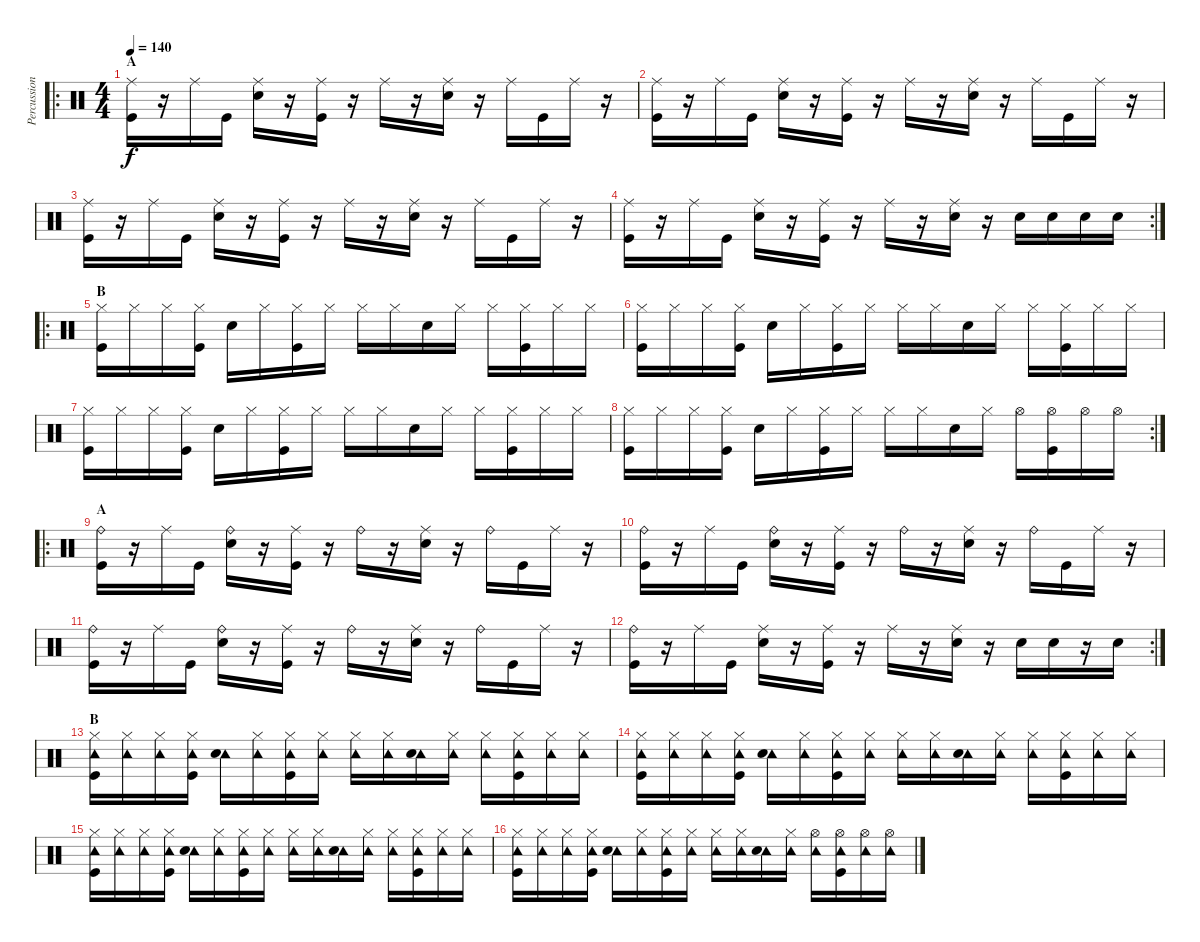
\track ("Percussion" "Percussion") {instrument percussion}
\staff {score}
\articulation defaults
\ro
\ts (4 4)
\section ("" "A")
\tempo 140
\clef neutral
\ks c
("Ride (middle)" "Kick (hit)").16{dy f} r.16 "Ride (middle)".16 "Kick (hit)".16 ("Ride (middle)" "Electric Snare (hit)").16 r.16 ("Ride (middle)" "Kick (hit)").16 r.16 "Ride (middle)".16 r.16 ("Ride (middle)" "Electric Snare (hit)").16 r.16 "Ride (middle)".16 "Kick (hit)".16 "Ride (middle)".16 r.16 |
("Ride (middle)" "Kick (hit)").16 r.16 "Ride (middle)".16 "Kick (hit)".16 ("Ride (middle)" "Electric Snare (hit)").16 r.16 ("Ride (middle)" "Kick (hit)").16 r.16 "Ride (middle)".16 r.16 ("Ride (middle)" "Electric Snare (hit)").16 r.16 "Ride (middle)".16 "Kick (hit)".16 "Ride (middle)".16 r.16 |
("Ride (middle)" "Kick (hit)").16 r.16 "Ride (middle)".16 "Kick (hit)".16 ("Ride (middle)" "Electric Snare (hit)").16 r.16 ("Ride (middle)" "Kick (hit)").16 r.16 "Ride (middle)".16 r.16 ("Ride (middle)" "Electric Snare (hit)").16 r.16 "Ride (middle)".16 "Kick (hit)".16 "Ride (middle)".16 r.16 |
\rc 2
("Ride (middle)" "Kick (hit)").16 r.16 "Ride (middle)".16 "Kick (hit)".16 ("Ride (middle)" "Electric Snare (hit)").16 r.16 ("Ride (middle)" "Kick (hit)").16 r.16 "Ride (middle)".16 r.16 ("Ride (middle)" "Electric Snare (hit)").16 r.16 "Electric Snare (hit)".16 "Electric Snare (hit)".16 "Electric Snare (hit)".16 "Electric Snare (hit)".16 |
\ro
\section ("" "B")
("Hi-Hat (closed)" "Kick (hit)").16 "Hi-Hat (closed)".16 "Hi-Hat (closed)".16 ("Hi-Hat (closed)" "Kick (hit)").16 "Electric Snare (hit)".16 "Hi-Hat (closed)".16 ("Hi-Hat (closed)" "Kick (hit)").16 "Hi-Hat (closed)".16 "Hi-Hat (closed)".16 "Hi-Hat (closed)".16 "Electric Snare (hit)".16 "Hi-Hat (closed)".16 "Hi-Hat (closed)".16 ("Hi-Hat (closed)" "Kick (hit)").16 "Hi-Hat (closed)".16 "Hi-Hat (closed)".16 |
("Hi-Hat (closed)" "Kick (hit)").16 "Hi-Hat (closed)".16 "Hi-Hat (closed)".16 ("Hi-Hat (closed)" "Kick (hit)").16 "Electric Snare (hit)".16 "Hi-Hat (closed)".16 ("Hi-Hat (closed)" "Kick (hit)").16 "Hi-Hat (closed)".16 "Hi-Hat (closed)".16 "Hi-Hat (closed)".16 "Electric Snare (hit)".16 "Hi-Hat (closed)".16 "Hi-Hat (closed)".16 ("Hi-Hat (closed)" "Kick (hit)").16 "Hi-Hat (closed)".16 "Hi-Hat (closed)".16 |
("Hi-Hat (closed)" "Kick (hit)").16 "Hi-Hat (closed)".16 "Hi-Hat (closed)".16 ("Hi-Hat (closed)" "Kick (hit)").16 "Electric Snare (hit)".16 "Hi-Hat (closed)".16 ("Hi-Hat (closed)" "Kick (hit)").16 "Hi-Hat (closed)".16 "Hi-Hat (closed)".16 "Hi-Hat (closed)".16 "Electric Snare (hit)".16 "Hi-Hat (closed)".16 "Hi-Hat (closed)".16 ("Hi-Hat (closed)" "Kick (hit)").16 "Hi-Hat (closed)".16 "Hi-Hat (closed)".16 |
\rc 2
("Hi-Hat (closed)" "Kick (hit)").16 "Hi-Hat (closed)".16 "Hi-Hat (closed)".16 ("Hi-Hat (closed)" "Kick (hit)").16 "Electric Snare (hit)".16 "Hi-Hat (closed)".16 ("Hi-Hat (closed)" "Kick (hit)").16 "Hi-Hat (closed)".16 "Hi-Hat (closed)".16 "Hi-Hat (closed)".16 "Electric Snare (hit)".16 "Hi-Hat (closed)".16 "Hi-Hat (open)".16 ("Hi-Hat (open)" "Kick (hit)").16 "Hi-Hat (open)".16 "Hi-Hat (open)".16 |
\ro
\section ("" "A")
("Ride (bell)" "Kick (hit)").16 r.16 "Ride (middle)".16 "Kick (hit)".16 ("Ride (bell)" "Electric Snare (hit)").16 r.16 ("Ride (middle)" "Kick (hit)").16 r.16 "Ride (bell)".16 r.16 ("Ride (middle)" "Electric Snare (hit)").16 r.16 "Ride (bell)".16 "Kick (hit)".16 "Ride (middle)".16 r.16 |
("Ride (bell)" "Kick (hit)").16 r.16 "Ride (middle)".16 "Kick (hit)".16 ("Ride (bell)" "Electric Snare (hit)").16 r.16 ("Ride (middle)" "Kick (hit)").16 r.16 "Ride (bell)".16 r.16 ("Ride (middle)" "Electric Snare (hit)").16 r.16 "Ride (bell)".16 "Kick (hit)".16 "Ride (middle)".16 r.16 |
("Ride (bell)" "Kick (hit)").16 r.16 "Ride (middle)".16 "Kick (hit)".16 ("Ride (bell)" "Electric Snare (hit)").16 r.16 ("Ride (middle)" "Kick (hit)").16 r.16 "Ride (bell)".16 r.16 ("Ride (middle)" "Electric Snare (hit)").16 r.16 "Ride (bell)".16 "Kick (hit)".16 "Ride (middle)".16 r.16 |
\rc 2
("Ride (bell)" "Kick (hit)").16 r.16 "Ride (middle)".16 "Kick (hit)".16 ("Ride (middle)" "Electric Snare (hit)").16 r.16 ("Ride (middle)" "Kick (hit)").16 r.16 "Ride (middle)".16 r.16 ("Ride (middle)" "Electric Snare (hit)").16 r.16 "Electric Snare (hit)".16 "Electric Snare (hit)".16 r.16 "Electric Snare (hit)".16 |
\section ("" "B")
("Tambourine (hit)" "Hi-Hat (closed)" "Kick (hit)").16 ("Tambourine (hit)" "Hi-Hat (closed)").16 ("Tambourine (hit)" "Hi-Hat (closed)").16 ("Tambourine (hit)" "Hi-Hat (closed)" "Kick (hit)").16 ("Tambourine (hit)" "Electric Snare (hit)").16 ("Tambourine (hit)" "Hi-Hat (closed)").16 ("Tambourine (hit)" "Hi-Hat (closed)" "Kick (hit)").16 ("Tambourine (hit)" "Hi-Hat (closed)").16 ("Tambourine (hit)" "Hi-Hat (closed)").16 ("Tambourine (hit)" "Hi-Hat (closed)").16 ("Tambourine (hit)" "Electric Snare (hit)").16 ("Tambourine (hit)" "Hi-Hat (closed)").16 ("Tambourine (hit)" "Hi-Hat (closed)").16 ("Tambourine (hit)" "Hi-Hat (closed)" "Kick (hit)").16 ("Tambourine (hit)" "Hi-Hat (closed)").16 ("Tambourine (hit)" "Hi-Hat (closed)").16 |
("Tambourine (hit)" "Hi-Hat (closed)" "Kick (hit)").16 ("Tambourine (hit)" "Hi-Hat (closed)").16 ("Tambourine (hit)" "Hi-Hat (closed)").16 ("Tambourine (hit)" "Hi-Hat (closed)" "Kick (hit)").16 ("Tambourine (hit)" "Electric Snare (hit)").16 ("Tambourine (hit)" "Hi-Hat (closed)").16 ("Tambourine (hit)" "Hi-Hat (closed)" "Kick (hit)").16 ("Tambourine (hit)" "Hi-Hat (closed)").16 ("Tambourine (hit)" "Hi-Hat (closed)").16 ("Tambourine (hit)" "Hi-Hat (closed)").16 ("Tambourine (hit)" "Electric Snare (hit)").16 ("Tambourine (hit)" "Hi-Hat (closed)").16 ("Tambourine (hit)" "Hi-Hat (closed)").16 ("Tambourine (hit)" "Hi-Hat (closed)" "Kick (hit)").16 ("Tambourine (hit)" "Hi-Hat (closed)").16 ("Tambourine (hit)" "Hi-Hat (closed)").16 |
("Tambourine (hit)" "Hi-Hat (closed)" "Kick (hit)").16 ("Tambourine (hit)" "Hi-Hat (closed)").16 ("Tambourine (hit)" "Hi-Hat (closed)").16 ("Tambourine (hit)" "Hi-Hat (closed)" "Kick (hit)").16 ("Tambourine (hit)" "Electric Snare (hit)").16 ("Tambourine (hit)" "Hi-Hat (closed)").16 ("Tambourine (hit)" "Hi-Hat (closed)" "Kick (hit)").16 ("Tambourine (hit)" "Hi-Hat (closed)").16 ("Tambourine (hit)" "Hi-Hat (closed)").16 ("Tambourine (hit)" "Hi-Hat (closed)").16 ("Tambourine (hit)" "Electric Snare (hit)").16 ("Tambourine (hit)" "Hi-Hat (closed)").16 ("Tambourine (hit)" "Hi-Hat (closed)").16 ("Tambourine (hit)" "Hi-Hat (closed)" "Kick (hit)").16 ("Tambourine (hit)" "Hi-Hat (closed)").16 ("Tambourine (hit)" "Hi-Hat (closed)").16 |
("Tambourine (hit)" "Hi-Hat (closed)" "Kick (hit)").16 ("Tambourine (hit)" "Hi-Hat (closed)").16 ("Tambourine (hit)" "Hi-Hat (closed)").16 ("Tambourine (hit)" "Hi-Hat (closed)" "Kick (hit)").16 ("Tambourine (hit)" "Electric Snare (hit)").16 ("Tambourine (hit)" "Hi-Hat (closed)").16 ("Tambourine (hit)" "Hi-Hat (closed)" "Kick (hit)").16 ("Tambourine (hit)" "Hi-Hat (closed)").16 ("Tambourine (hit)" "Hi-Hat (closed)").16 ("Tambourine (hit)" "Hi-Hat (closed)").16 ("Tambourine (hit)" "Electric Snare (hit)").16 ("Tambourine (hit)" "Hi-Hat (closed)").16 ("Tambourine (hit)" "Hi-Hat (open)").16 ("Tambourine (hit)" "Hi-Hat (open)" "Kick (hit)").16 ("Tambourine (hit)" "Hi-Hat (open)").16 ("Tambourine (hit)" "Hi-Hat (open)").16
